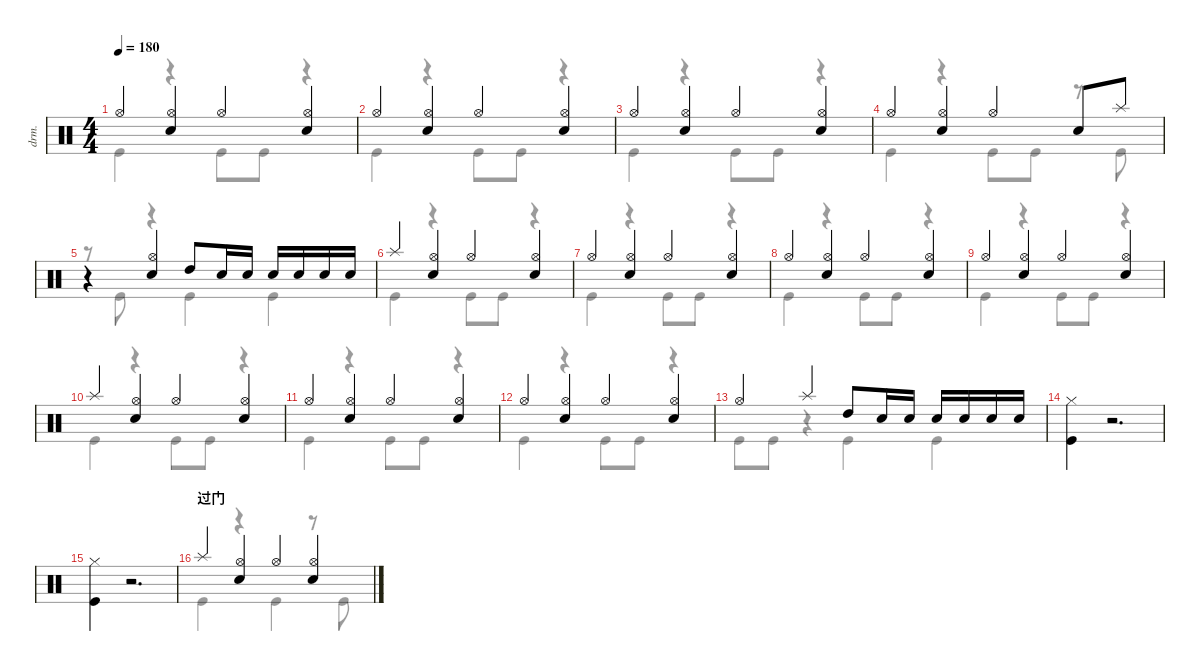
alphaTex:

\defaultSystemsLayout 4
\hideDynamics
\bracketExtendMode nobrackets
\otherSystemsTrackNameOrientation horizontal
\track ("Drumkit" "drm.") {instrument percussion}
\staff {score}
\articulation defaults
\voice
\ts (4 4)
\tempo 180
\clef neutral
\ks c "Hi-Hat (open)".4{dy mf}
("Hi-Hat (open)" "Snare (hit) 2").4 "Hi-Hat (open)".4 ("Hi-Hat (open)" "Snare (hit) 2").4 |
"Hi-Hat (open)".4 ("Hi-Hat (open)" "Snare (hit) 2").4 "Hi-Hat (open)".4 ("Hi-Hat (open)" "Snare (hit) 2").4 |
"Hi-Hat (open)".4 ("Hi-Hat (open)" "Snare (hit) 2").4 "Hi-Hat (open)".4 ("Hi-Hat (open)" "Snare (hit) 2").4 |
"Hi-Hat (open)".4 ("Hi-Hat (open)" "Snare (hit) 2").4 "Hi-Hat (open)".4 "Snare (hit) 2".8 "Splash (hit)".8 |
r.4 ("Hi-Hat (open)" "Snare (hit) 2").4 "High Tom (hit)".8 "Snare (hit) 2".16 "Snare (hit) 2".16 "Snare (hit) 2".16 "Snare (hit) 2".16 "Snare (hit) 2".16 "Snare (hit) 2".16 |
"Splash (hit)".4 ("Hi-Hat (open)" "Snare (hit) 2").4 "Hi-Hat (open)".4 ("Hi-Hat (open)" "Snare (hit) 2").4 |
"Hi-Hat (open)".4 ("Hi-Hat (open)" "Snare (hit) 2").4 "Hi-Hat (open)".4 ("Hi-Hat (open)" "Snare (hit) 2").4 |
"Hi-Hat (open)".4 ("Hi-Hat (open)" "Snare (hit) 2").4 "Hi-Hat (open)".4 ("Hi-Hat (open)" "Snare (hit) 2").4 |
"Hi-Hat (open)".4 ("Hi-Hat (open)" "Snare (hit) 2").4 "Hi-Hat (open)".4 ("Hi-Hat (open)" "Snare (hit) 2").4 |
"Splash (hit)".4 ("Hi-Hat (open)" "Snare (hit) 2").4 "Hi-Hat (open)".4 ("Hi-Hat (open)" "Snare (hit) 2").4 |
"Hi-Hat (open)".4 ("Hi-Hat (open)" "Snare (hit) 2").4 "Hi-Hat (open)".4 ("Hi-Hat (open)" "Snare (hit) 2").4 |
"Hi-Hat (open)".4 ("Hi-Hat (open)" "Snare (hit) 2").4 "Hi-Hat (open)".4 ("Hi-Hat (open)" "Snare (hit) 2").4 |
"Hi-Hat (open)".4 "Splash (hit)".4 "High Tom (hit)".8 "Snare (hit) 2".16 "Snare (hit) 2".16 "Snare (hit) 2".16 "Snare (hit) 2".16 "Snare (hit) 2".16 "Snare (hit) 2".16 |
("Hi-Hat (closed)" "Kick (hit)").4 r.2{d} |
("Kick (hit)" "Hi-Hat (closed)").4 r.2{d} |
\section ("" "过门")
"Splash (hit)".4 ("Hi-Hat (open)" "Snare (hit) 2").4 "Hi-Hat (open)".4 ("Hi-Hat (open)" "Snare (hit) 2").4
\voice
\clef neutral
\ottava regular
\simile none
\ks c "Kick (hit)".4{dy mf}
r.4 "Kick (hit)".8 "Kick (hit)".8 r.4 |
"Kick (hit)".4 r.4 "Kick (hit)".8 "Kick (hit)".8 r.4 |
"Kick (hit)".4 r.4 "Kick (hit)".8 "Kick (hit)".8 r.4 |
"Kick (hit)".4 r.4 "Kick (hit)".8 "Kick (hit)".8 r.8 "Kick (hit)".8 |
r.8 "Kick (hit)".8 r.4 "Kick (hit)".4 "Kick (hit)".4 |
"Kick (hit)".4 r.4 "Kick (hit)".8 "Kick (hit)".8 r.4 |
"Kick (hit)".4 r.4 "Kick (hit)".8 "Kick (hit)".8 r.4 |
"Kick (hit)".4 r.4 "Kick (hit)".8 "Kick (hit)".8 r.4 |
"Kick (hit)".4 r.4 "Kick (hit)".8 "Kick (hit)".8 r.4 |
"Kick (hit)".4 r.4 "Kick (hit)".8 "Kick (hit)".8 r.4 |
"Kick (hit)".4 r.4 "Kick (hit)".8 "Kick (hit)".8 r.4 |
"Kick (hit)".4 r.4 "Kick (hit)".8 "Kick (hit)".8 r.4 |
"Kick (hit)".8 "Kick (hit)".8 r.4 "Kick (hit)".4 "Kick (hit)".4 |
|
|
"Kick (hit)".4 r.4 "Kick (hit)".4 r.8 "Kick (hit)".8
